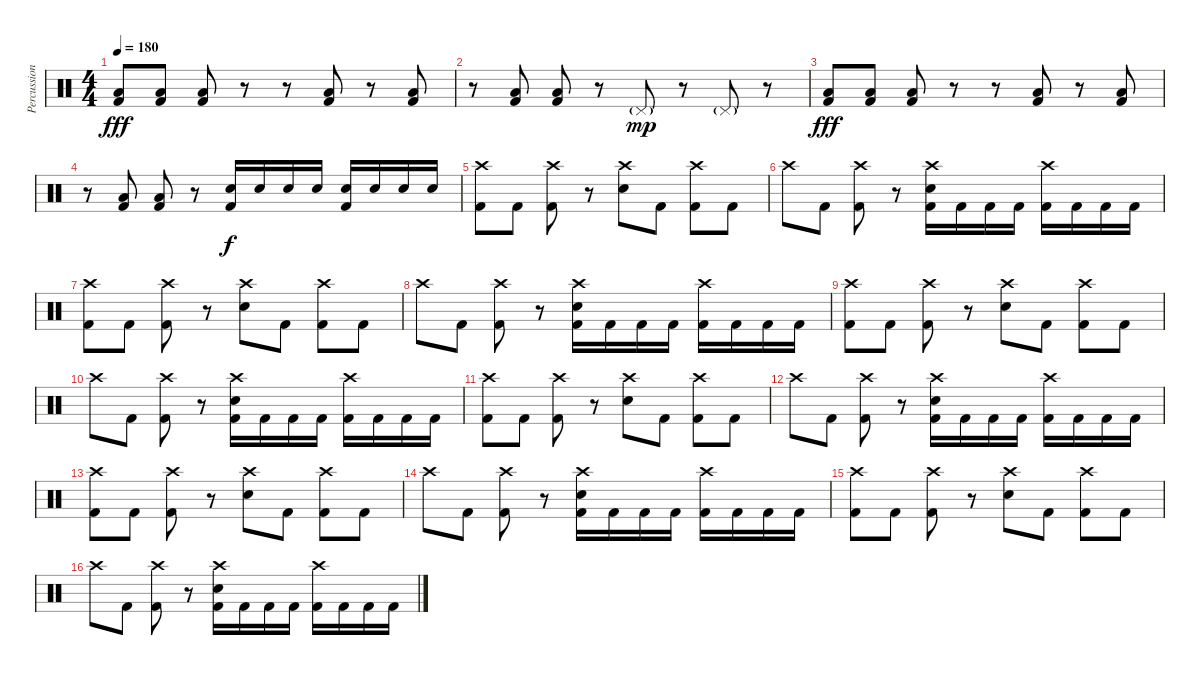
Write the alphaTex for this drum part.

\track ("Percussion" "Percussion") {instrument percussion}
\staff {score}
\articulation defaults
\ts (4 4)
\tempo 180
\clef neutral
\ks c
("Low Floor Tom (hit)" "Kick (hit) 2").8{dy fff} ("Low Floor Tom (hit)" "Kick (hit) 2").8 ("Low Floor Tom (hit)" "Kick (hit) 2").8 r.8 r.8 ("Low Floor Tom (hit)" "Kick (hit) 2").8 r.8 ("Low Floor Tom (hit)" "Kick (hit) 2").8 |
r.8 ("Low Floor Tom (hit)" "Kick (hit) 2").8 ("Low Floor Tom (hit)" "Kick (hit) 2").8 r.8 "Pedal Hi-Hat (hit)"{g}.8{dy mp} r.8 "Pedal Hi-Hat (hit)"{g}.8 r.8 |
("Low Floor Tom (hit)" "Kick (hit) 2").8{dy fff} ("Low Floor Tom (hit)" "Kick (hit) 2").8 ("Low Floor Tom (hit)" "Kick (hit) 2").8 r.8 r.8 ("Low Floor Tom (hit)" "Kick (hit) 2").8 r.8 ("Low Floor Tom (hit)" "Kick (hit) 2").8 |
r.8 ("Low Floor Tom (hit)" "Kick (hit) 2").8 ("Low Floor Tom (hit)" "Kick (hit) 2").8 r.8 ("Electric Snare (hit)" "Kick (hit) 2").16{dy f} "Electric Snare (hit)".16 "Electric Snare (hit)".16 "Electric Snare (hit)".16 ("Electric Snare (hit)" "Kick (hit) 2").16 "Electric Snare (hit)".16 "Electric Snare (hit)".16 "Electric Snare (hit)".16 |
("Crash high (hit)" "Kick (hit) 2").8 "Kick (hit) 2".8 ("Crash high (hit)" "Kick (hit) 2").8 r.8 ("Crash high (hit)" "Electric Snare (hit)").8 "Kick (hit) 2".8 ("Crash high (hit)" "Kick (hit) 2").8 "Kick (hit) 2".8 |
"Crash high (hit)".8 "Kick (hit) 2".8 ("Crash high (hit)" "Kick (hit) 2").8 r.8 ("Crash high (hit)" "Electric Snare (hit)" "Kick (hit) 2").16 "Kick (hit) 2".16 "Kick (hit) 2".16 "Kick (hit) 2".16 ("Crash high (hit)" "Kick (hit) 2").16 "Kick (hit) 2".16 "Kick (hit) 2".16 "Kick (hit) 2".16 |
("Crash high (hit)" "Kick (hit) 2").8 "Kick (hit) 2".8 ("Crash high (hit)" "Kick (hit) 2").8 r.8 ("Crash high (hit)" "Electric Snare (hit)").8 "Kick (hit) 2".8 ("Crash high (hit)" "Kick (hit) 2").8 "Kick (hit) 2".8 |
"Crash high (hit)".8 "Kick (hit) 2".8 ("Crash high (hit)" "Kick (hit) 2").8 r.8 ("Crash high (hit)" "Electric Snare (hit)" "Kick (hit) 2").16 "Kick (hit) 2".16 "Kick (hit) 2".16 "Kick (hit) 2".16 ("Crash high (hit)" "Kick (hit) 2").16 "Kick (hit) 2".16 "Kick (hit) 2".16 "Kick (hit) 2".16 |
("Crash high (hit)" "Kick (hit) 2").8 "Kick (hit) 2".8 ("Crash high (hit)" "Kick (hit) 2").8 r.8 ("Crash high (hit)" "Electric Snare (hit)").8 "Kick (hit) 2".8 ("Crash high (hit)" "Kick (hit) 2").8 "Kick (hit) 2".8 |
"Crash high (hit)".8 "Kick (hit) 2".8 ("Crash high (hit)" "Kick (hit) 2").8 r.8 ("Crash high (hit)" "Electric Snare (hit)" "Kick (hit) 2").16 "Kick (hit) 2".16 "Kick (hit) 2".16 "Kick (hit) 2".16 ("Crash high (hit)" "Kick (hit) 2").16 "Kick (hit) 2".16 "Kick (hit) 2".16 "Kick (hit) 2".16 |
("Crash high (hit)" "Kick (hit) 2").8 "Kick (hit) 2".8 ("Crash high (hit)" "Kick (hit) 2").8 r.8 ("Crash high (hit)" "Electric Snare (hit)").8 "Kick (hit) 2".8 ("Crash high (hit)" "Kick (hit) 2").8 "Kick (hit) 2".8 |
"Crash high (hit)".8 "Kick (hit) 2".8 ("Crash high (hit)" "Kick (hit) 2").8 r.8 ("Crash high (hit)" "Electric Snare (hit)" "Kick (hit) 2").16 "Kick (hit) 2".16 "Kick (hit) 2".16 "Kick (hit) 2".16 ("Crash high (hit)" "Kick (hit) 2").16 "Kick (hit) 2".16 "Kick (hit) 2".16 "Kick (hit) 2".16 |
("Crash high (hit)" "Kick (hit) 2").8 "Kick (hit) 2".8 ("Crash high (hit)" "Kick (hit) 2").8 r.8 ("Crash high (hit)" "Electric Snare (hit)").8 "Kick (hit) 2".8 ("Crash high (hit)" "Kick (hit) 2").8 "Kick (hit) 2".8 |
"Crash high (hit)".8 "Kick (hit) 2".8 ("Crash high (hit)" "Kick (hit) 2").8 r.8 ("Crash high (hit)" "Electric Snare (hit)" "Kick (hit) 2").16 "Kick (hit) 2".16 "Kick (hit) 2".16 "Kick (hit) 2".16 ("Crash high (hit)" "Kick (hit) 2").16 "Kick (hit) 2".16 "Kick (hit) 2".16 "Kick (hit) 2".16 |
("Crash high (hit)" "Kick (hit) 2").8 "Kick (hit) 2".8 ("Crash high (hit)" "Kick (hit) 2").8 r.8 ("Crash high (hit)" "Electric Snare (hit)").8 "Kick (hit) 2".8 ("Crash high (hit)" "Kick (hit) 2").8 "Kick (hit) 2".8 |
"Crash high (hit)".8 "Kick (hit) 2".8 ("Crash high (hit)" "Kick (hit) 2").8 r.8 ("Crash high (hit)" "Electric Snare (hit)" "Kick (hit) 2").16 "Kick (hit) 2".16 "Kick (hit) 2".16 "Kick (hit) 2".16 ("Crash high (hit)" "Kick (hit) 2").16 "Kick (hit) 2".16 "Kick (hit) 2".16 "Kick (hit) 2".16
